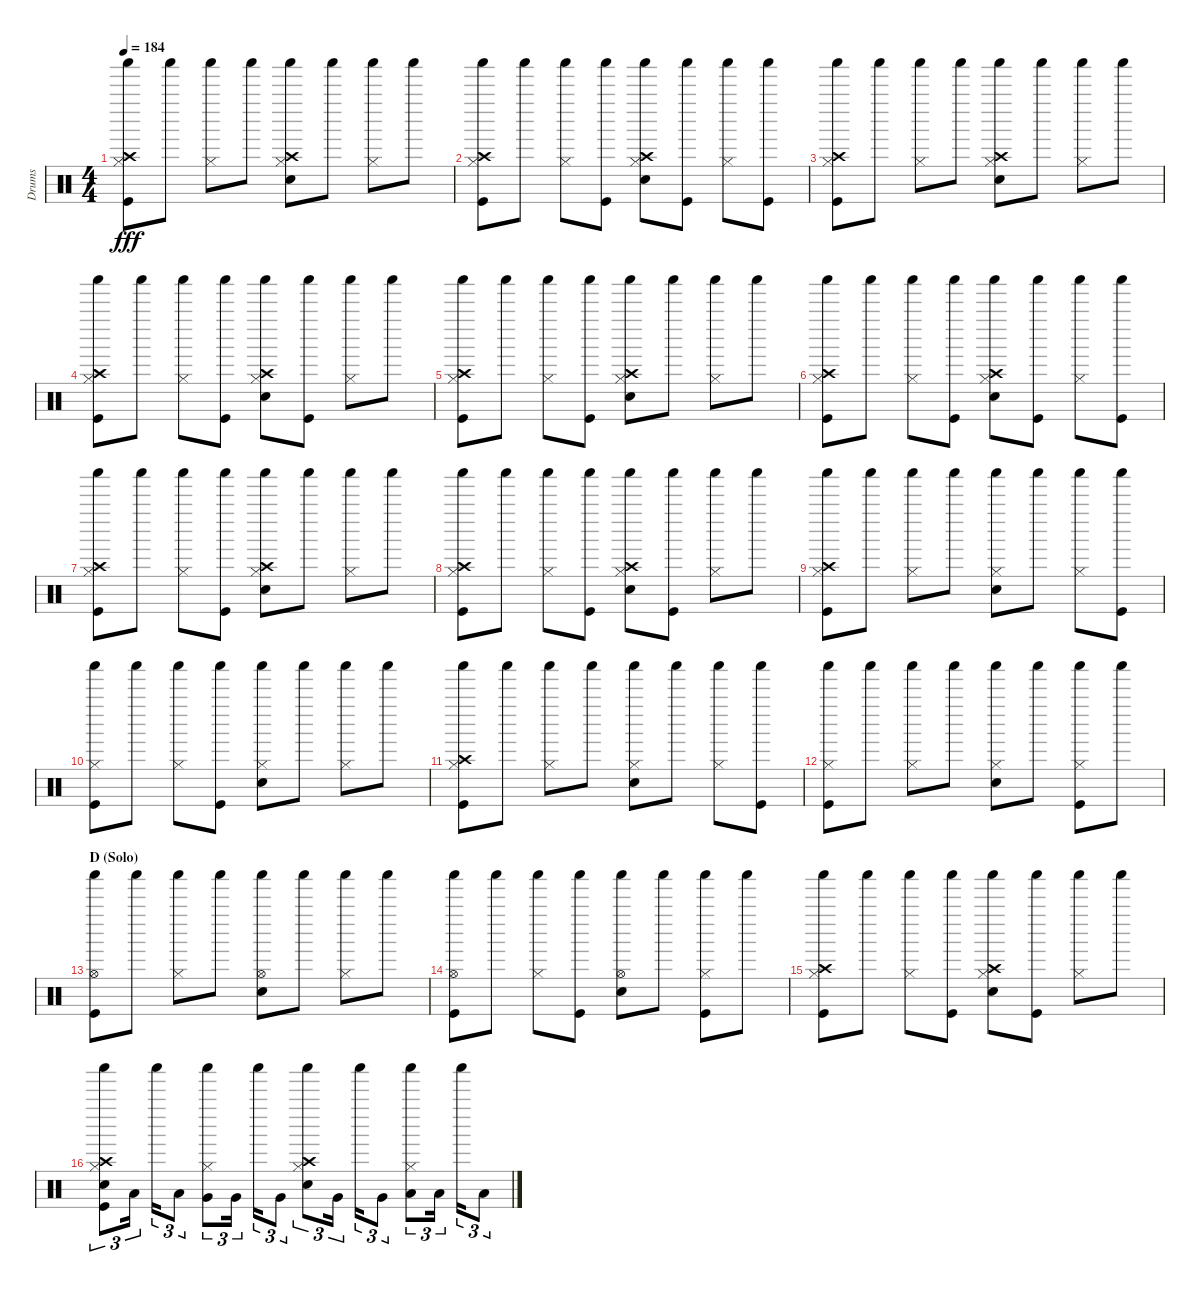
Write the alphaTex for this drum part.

\track ("Drums" "Drums") {instrument percussion}
\staff {score}
\articulation defaults
\ts (4 4)
\tempo 184
\clef neutral
\ks c
("Hi-Hat (closed)" "Shaker (hit)" "Crash high (hit)" "Kick (hit)").8{dy fff} "Shaker (hit)".8 ("Hi-Hat (closed)" "Shaker (hit)").8 "Shaker (hit)".8 ("Hi-Hat (closed)" "Shaker (hit)" "Crash high (hit)" "Snare (hit) 2").8 "Shaker (hit)".8 ("Hi-Hat (closed)" "Shaker (hit)").8 "Shaker (hit)".8 |
("Hi-Hat (closed)" "Shaker (hit)" "Crash high (hit)" "Kick (hit)").8 "Shaker (hit)".8 ("Hi-Hat (closed)" "Shaker (hit)").8 ("Shaker (hit)" "Kick (hit)").8 ("Hi-Hat (closed)" "Shaker (hit)" "Crash high (hit)" "Snare (hit) 2").8 ("Shaker (hit)" "Kick (hit)").8 ("Hi-Hat (closed)" "Shaker (hit)").8 ("Shaker (hit)" "Kick (hit)").8 |
("Hi-Hat (closed)" "Shaker (hit)" "Crash high (hit)" "Kick (hit)").8 "Shaker (hit)".8 ("Hi-Hat (closed)" "Shaker (hit)").8 "Shaker (hit)".8 ("Hi-Hat (closed)" "Shaker (hit)" "Crash high (hit)" "Snare (hit) 2").8 "Shaker (hit)".8 ("Hi-Hat (closed)" "Shaker (hit)").8 "Shaker (hit)".8 |
("Hi-Hat (closed)" "Shaker (hit)" "Crash high (hit)" "Kick (hit)").8 "Shaker (hit)".8 ("Hi-Hat (closed)" "Shaker (hit)").8 ("Shaker (hit)" "Kick (hit)").8 ("Hi-Hat (closed)" "Shaker (hit)" "Crash high (hit)" "Snare (hit) 2").8 ("Shaker (hit)" "Kick (hit)").8 ("Hi-Hat (closed)" "Shaker (hit)").8 "Shaker (hit)".8 |
("Hi-Hat (closed)" "Shaker (hit)" "Crash high (hit)" "Kick (hit)").8 "Shaker (hit)".8 ("Hi-Hat (closed)" "Shaker (hit)").8 ("Shaker (hit)" "Kick (hit)").8 ("Hi-Hat (closed)" "Shaker (hit)" "Crash high (hit)" "Snare (hit) 2").8 "Shaker (hit)".8 ("Hi-Hat (closed)" "Shaker (hit)").8 "Shaker (hit)".8 |
("Hi-Hat (closed)" "Shaker (hit)" "Crash high (hit)" "Kick (hit)").8 "Shaker (hit)".8 ("Hi-Hat (closed)" "Shaker (hit)").8 ("Shaker (hit)" "Kick (hit)").8 ("Hi-Hat (closed)" "Shaker (hit)" "Crash high (hit)" "Snare (hit) 2").8 ("Shaker (hit)" "Kick (hit)").8 ("Hi-Hat (closed)" "Shaker (hit)").8 ("Shaker (hit)" "Kick (hit)").8 |
("Hi-Hat (closed)" "Shaker (hit)" "Crash high (hit)" "Kick (hit)").8 "Shaker (hit)".8 ("Hi-Hat (closed)" "Shaker (hit)").8 ("Shaker (hit)" "Kick (hit)").8 ("Hi-Hat (closed)" "Shaker (hit)" "Crash high (hit)" "Snare (hit) 2").8 "Shaker (hit)".8 ("Hi-Hat (closed)" "Shaker (hit)").8 "Shaker (hit)".8 |
("Hi-Hat (closed)" "Shaker (hit)" "Crash high (hit)" "Kick (hit)").8 "Shaker (hit)".8 ("Hi-Hat (closed)" "Shaker (hit)").8 ("Shaker (hit)" "Kick (hit)").8 ("Hi-Hat (closed)" "Shaker (hit)" "Crash high (hit)" "Snare (hit) 2").8 ("Shaker (hit)" "Kick (hit)").8 ("Hi-Hat (closed)" "Shaker (hit)").8 "Shaker (hit)".8 |
("Hi-Hat (closed)" "Shaker (hit)" "Crash high (hit)" "Kick (hit)").8 "Shaker (hit)".8 ("Hi-Hat (closed)" "Shaker (hit)").8 "Shaker (hit)".8 ("Hi-Hat (closed)" "Shaker (hit)" "Snare (hit) 2").8 "Shaker (hit)".8 ("Hi-Hat (closed)" "Shaker (hit)").8 ("Shaker (hit)" "Kick (hit)").8 |
("Hi-Hat (closed)" "Shaker (hit)" "Kick (hit)").8 "Shaker (hit)".8 ("Hi-Hat (closed)" "Shaker (hit)").8 ("Shaker (hit)" "Kick (hit)").8 ("Hi-Hat (closed)" "Shaker (hit)" "Snare (hit) 2").8 "Shaker (hit)".8 ("Hi-Hat (closed)" "Shaker (hit)").8 "Shaker (hit)".8 |
("Hi-Hat (closed)" "Shaker (hit)" "Crash high (hit)" "Kick (hit)").8 "Shaker (hit)".8 ("Hi-Hat (closed)" "Shaker (hit)").8 "Shaker (hit)".8 ("Hi-Hat (closed)" "Shaker (hit)" "Snare (hit) 2").8 "Shaker (hit)".8 ("Hi-Hat (closed)" "Shaker (hit)").8 ("Shaker (hit)" "Kick (hit)").8 |
("Hi-Hat (closed)" "Shaker (hit)" "Kick (hit)").8 "Shaker (hit)".8 ("Hi-Hat (closed)" "Shaker (hit)").8 "Shaker (hit)".8 ("Hi-Hat (closed)" "Shaker (hit)" "Snare (hit) 2").8 "Shaker (hit)".8 ("Hi-Hat (closed)" "Shaker (hit)" "Kick (hit)").8 "Shaker (hit)".8 |
\section ("" "D (Solo)")
("Hi-Hat (open)" "Shaker (hit)" "Kick (hit)").8 "Shaker (hit)".8 ("Hi-Hat (closed)" "Shaker (hit)").8 "Shaker (hit)".8 ("Hi-Hat (open)" "Shaker (hit)" "Snare (hit) 2").8 "Shaker (hit)".8 ("Hi-Hat (closed)" "Shaker (hit)").8 "Shaker (hit)".8 |
("Hi-Hat (open)" "Shaker (hit)" "Kick (hit)").8 "Shaker (hit)".8 ("Hi-Hat (closed)" "Shaker (hit)").8 ("Shaker (hit)" "Kick (hit)").8 ("Hi-Hat (open)" "Shaker (hit)" "Snare (hit) 2").8 "Shaker (hit)".8 ("Hi-Hat (closed)" "Shaker (hit)" "Kick (hit)").8 "Shaker (hit)".8 |
("Hi-Hat (closed)" "Shaker (hit)" "Crash high (hit)" "Kick (hit)").8 "Shaker (hit)".8 ("Hi-Hat (closed)" "Shaker (hit)").8 ("Shaker (hit)" "Kick (hit)").8 ("Hi-Hat (closed)" "Shaker (hit)" "Crash high (hit)" "Snare (hit) 2").8 ("Shaker (hit)" "Kick (hit)").8 ("Hi-Hat (closed)" "Shaker (hit)").8 "Shaker (hit)".8 |
("Hi-Hat (closed)" "Shaker (hit)" "Crash high (hit)" "Snare (hit) 2" "Kick (hit)").8{tu (3 2)} "Low Tom (hit)".16{tu (3 2)} "Shaker (hit)".16{tu (3 2)} "Low Tom (hit)".8{tu (3 2)} ("Hi-Hat (closed)" "Shaker (hit)" "Very Low Tom (hit)").8{tu (3 2)} "Very Low Tom (hit)".16{tu (3 2)} "Shaker (hit)".16{tu (3 2)} "Very Low Tom (hit)".8{tu (3 2)} ("Hi-Hat (closed)" "Shaker (hit)" "Crash high (hit)" "Snare (hit) 2").8{tu (3 2)} "Very Low Tom (hit)".16{tu (3 2)} "Shaker (hit)".16{tu (3 2)} "Very Low Tom (hit)".8{tu (3 2)} ("Hi-Hat (closed)" "Shaker (hit)" "Low Floor Tom (hit)").8{tu (3 2)} "Low Floor Tom (hit)".16{tu (3 2)} "Shaker (hit)".16{tu (3 2)} "Low Floor Tom (hit)".8{tu (3 2)}
